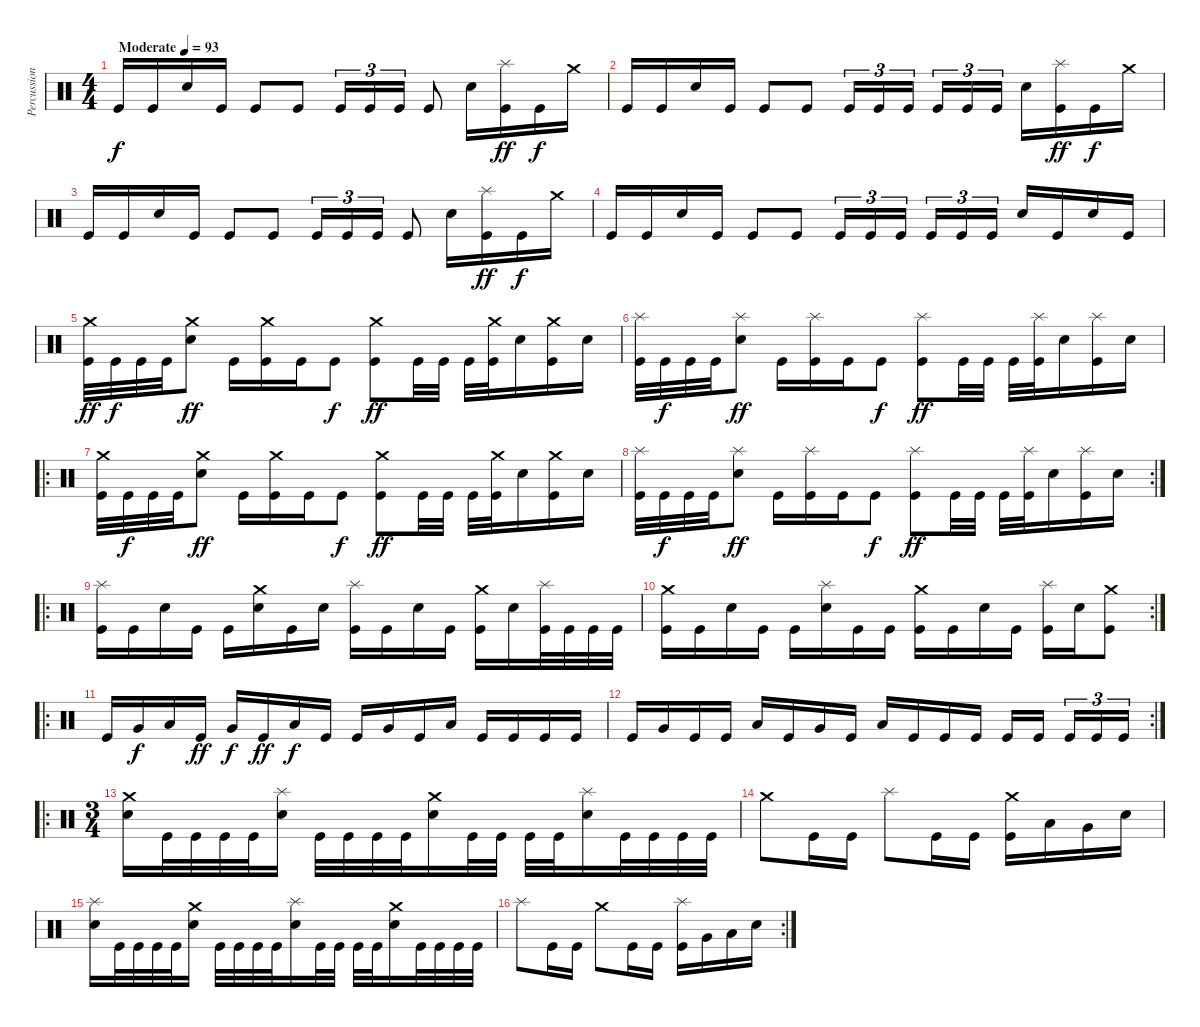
\track ("Percussion" "Percussion") {instrument percussion}
\staff {score}
\articulation defaults
\ts (4 4)
\tempo (93 "Moderate")
\clef neutral
\ks c "Kick (hit)".16{dy f} "Kick (hit)".16 "Snare (hit) 2".16 "Kick (hit)".16 "Kick (hit)".8 "Kick (hit)".8 "Kick (hit)".16{tu (3 2)} "Kick (hit)".16{tu (3 2)} "Kick (hit)".16{tu (3 2)} "Kick (hit)".8 "Snare (hit) 2".16
("Splash (hit)" "Kick (hit)").16{dy ff} "Kick (hit)".16{dy f} "Crash medium (hit)".16 |
"Kick (hit)".16 "Kick (hit)".16 "Snare (hit) 2".16 "Kick (hit)".16 "Kick (hit)".8 "Kick (hit)".8 "Kick (hit)".16{tu (3 2)} "Kick (hit)".16{tu (3 2)} "Kick (hit)".16{tu (3 2) beam splitsecondary} "Kick (hit)".16{tu (3 2)} "Kick (hit)".16{tu (3 2)} "Kick (hit)".16{tu (3 2)} "Snare (hit) 2".16 ("Splash (hit)" "Kick (hit)").16{dy ff} "Kick (hit)".16{dy f} "Crash medium (hit)".16 |
"Kick (hit)".16 "Kick (hit)".16 "Snare (hit) 2".16 "Kick (hit)".16 "Kick (hit)".8 "Kick (hit)".8 "Kick (hit)".16{tu (3 2)} "Kick (hit)".16{tu (3 2)} "Kick (hit)".16{tu (3 2)} "Kick (hit)".8 "Snare (hit) 2".16 ("Splash (hit)" "Kick (hit)").16{dy ff} "Kick (hit)".16{dy f} "Crash medium (hit)".16 |
"Kick (hit)".16 "Kick (hit)".16 "Snare (hit) 2".16 "Kick (hit)".16 "Kick (hit)".8 "Kick (hit)".8 "Kick (hit)".16{tu (3 2)} "Kick (hit)".16{tu (3 2)} "Kick (hit)".16{tu (3 2) beam splitsecondary} "Kick (hit)".16{tu (3 2)} "Kick (hit)".16{tu (3 2)} "Kick (hit)".16{tu (3 2)} "Snare (hit) 2".16 "Kick (hit)".16 "Snare (hit) 2".16 "Kick (hit)".16 |
("Crash medium (hit)" "Kick (hit)").32{dy ff} "Kick (hit)".32{dy f} "Kick (hit)".32 "Kick (hit)".32 ("Crash medium (hit)" "Snare (hit) 2").8{dy ff} "Kick (hit)".16 ("Crash medium (hit)" "Kick (hit)").16 "Kick (hit)".16 "Kick (hit)".8{dy f} ("Crash medium (hit)" "Kick (hit)").8{dy ff} "Kick (hit)".32 "Kick (hit)".32 "Kick (hit)".32 ("Crash medium (hit)" "Kick (hit)").32 "Snare (hit) 2".16 ("Crash medium (hit)" "Kick (hit)").16 "Snare (hit) 2".16 |
("Splash (hit)" "Kick (hit)").32 "Kick (hit)".32{dy f} "Kick (hit)".32 "Kick (hit)".32 ("Splash (hit)" "Snare (hit) 2").8{dy ff} "Kick (hit)".16 ("Splash (hit)" "Kick (hit)").16 "Kick (hit)".16 "Kick (hit)".8{dy f} ("Splash (hit)" "Kick (hit)").8{dy ff} "Kick (hit)".32 "Kick (hit)".32 "Kick (hit)".32 ("Splash (hit)" "Kick (hit)").32 "Snare (hit) 2".16 ("Splash (hit)" "Kick (hit)").16 "Snare (hit) 2".16 |
\ro
("Crash medium (hit)" "Kick (hit)").32 "Kick (hit)".32{dy f} "Kick (hit)".32 "Kick (hit)".32 ("Crash medium (hit)" "Snare (hit) 2").8{dy ff} "Kick (hit)".16 ("Crash medium (hit)" "Kick (hit)").16 "Kick (hit)".16 "Kick (hit)".8{dy f} ("Crash medium (hit)" "Kick (hit)").8{dy ff} "Kick (hit)".32 "Kick (hit)".32 "Kick (hit)".32 ("Crash medium (hit)" "Kick (hit)").32 "Snare (hit) 2".16 ("Crash medium (hit)" "Kick (hit)").16 "Snare (hit) 2".16 |
\rc 2
("Splash (hit)" "Kick (hit)").32 "Kick (hit)".32{dy f} "Kick (hit)".32 "Kick (hit)".32 ("Splash (hit)" "Snare (hit) 2").8{dy ff} "Kick (hit)".16 ("Splash (hit)" "Kick (hit)").16 "Kick (hit)".16 "Kick (hit)".8{dy f} ("Splash (hit)" "Kick (hit)").8{dy ff} "Kick (hit)".32 "Kick (hit)".32 "Kick (hit)".32 ("Splash (hit)" "Kick (hit)").32 "Snare (hit) 2".16 ("Splash (hit)" "Kick (hit)").16 "Snare (hit) 2".16 |
\ro
("Splash (hit)" "Kick (hit)").16 "Kick (hit)".16 "Snare (hit) 2".16 "Kick (hit)".16 "Kick (hit)".16 ("Crash medium (hit)" "Snare (hit) 2").16 "Kick (hit)".16 "Snare (hit) 2".16 ("Splash (hit)" "Kick (hit)").16 "Kick (hit)".16 "Snare (hit) 2".16 "Kick (hit)".16 ("Crash medium (hit)" "Kick (hit)").16 "Snare (hit) 2".16 ("Splash (hit)" "Kick (hit)").32 "Kick (hit)".32 "Kick (hit)".32 "Kick (hit)".32 |
\rc 2
("Crash medium (hit)" "Kick (hit)").16 "Kick (hit)".16 "Snare (hit) 2".16 "Kick (hit)".16 "Kick (hit)".16 ("Splash (hit)" "Snare (hit) 2").16 "Kick (hit)".16 "Kick (hit)".16 ("Crash medium (hit)" "Kick (hit)").16 "Kick (hit)".16 "Snare (hit) 2".16 "Kick (hit)".16 ("Splash (hit)" "Kick (hit)").16 "Snare (hit) 2".16 ("Crash medium (hit)" "Kick (hit)").8 |
\ro "Kick (hit)".16 "Very Low Tom (hit)".16{dy f} "Low Tom (hit)".16 "Kick (hit)".16{dy ff} "Very Low Tom (hit)".16{dy f} "Kick (hit)".16{dy ff} "Low Tom (hit)".16{dy f} "Kick (hit)".16 "Kick (hit)".16 "Very Low Tom (hit)".16 "Kick (hit)".16 "Low Tom (hit)".16 "Kick (hit)".16 "Kick (hit)".16 "Kick (hit)".16 "Kick (hit)".16
|
\rc 2 "Kick (hit)".16 "Very Low Tom (hit)".16 "Kick (hit)".16 "Kick (hit)".16 "Low Tom (hit)".16 "Kick (hit)".16 "Very Low Tom (hit)".16 "Kick (hit)".16 "Low Tom (hit)".16 "Kick (hit)".16 "Kick (hit)".16 "Kick (hit)".16 "Kick (hit)".16 "Kick (hit)".16{beam splitsecondary} "Kick (hit)".16{tu (3 2)} "Kick (hit)".16{tu (3 2)} "Kick (hit)".16{tu (3 2)}
|
\ro
\ts (3 4)
("Crash medium (hit)" "Snare (hit) 2").16 "Kick (hit)".32 "Kick (hit)".32 "Kick (hit)".32 "Kick (hit)".32 ("Splash (hit)" "Snare (hit) 2").16 "Kick (hit)".32 "Kick (hit)".32 "Kick (hit)".32 "Kick (hit)".32 ("Crash medium (hit)" "Snare (hit) 2").16 "Kick (hit)".32 "Kick (hit)".32 "Kick (hit)".32 "Kick (hit)".32 ("Splash (hit)" "Snare (hit) 2").16 "Kick (hit)".32 "Kick (hit)".32 "Kick (hit)".32 "Kick (hit)".32 |
"Crash medium (hit)".8 "Kick (hit)".16 "Kick (hit)".16 "Splash (hit)".8 "Kick (hit)".16 "Kick (hit)".16 ("Crash medium (hit)" "Kick (hit)").16 "Low Tom (hit)".16 "Very Low Tom (hit)".16 "Snare (hit) 2".16 |
("Splash (hit)" "Snare (hit) 2").16 "Kick (hit)".32 "Kick (hit)".32 "Kick (hit)".32 "Kick (hit)".32 ("Crash medium (hit)" "Snare (hit) 2").16 "Kick (hit)".32 "Kick (hit)".32 "Kick (hit)".32 "Kick (hit)".32 ("Splash (hit)" "Snare (hit) 2").16 "Kick (hit)".32 "Kick (hit)".32 "Kick (hit)".32 "Kick (hit)".32 ("Crash medium (hit)" "Snare (hit) 2").16 "Kick (hit)".32 "Kick (hit)".32 "Kick (hit)".32 "Kick (hit)".32 |
\rc 2 "Splash (hit)".8 "Kick (hit)".16 "Kick (hit)".16 "Crash medium (hit)".8 "Kick (hit)".16 "Kick (hit)".16
("Splash (hit)" "Kick (hit)").16 "Very Low Tom (hit)".16 "Low Tom (hit)".16 "Snare (hit) 2".16
